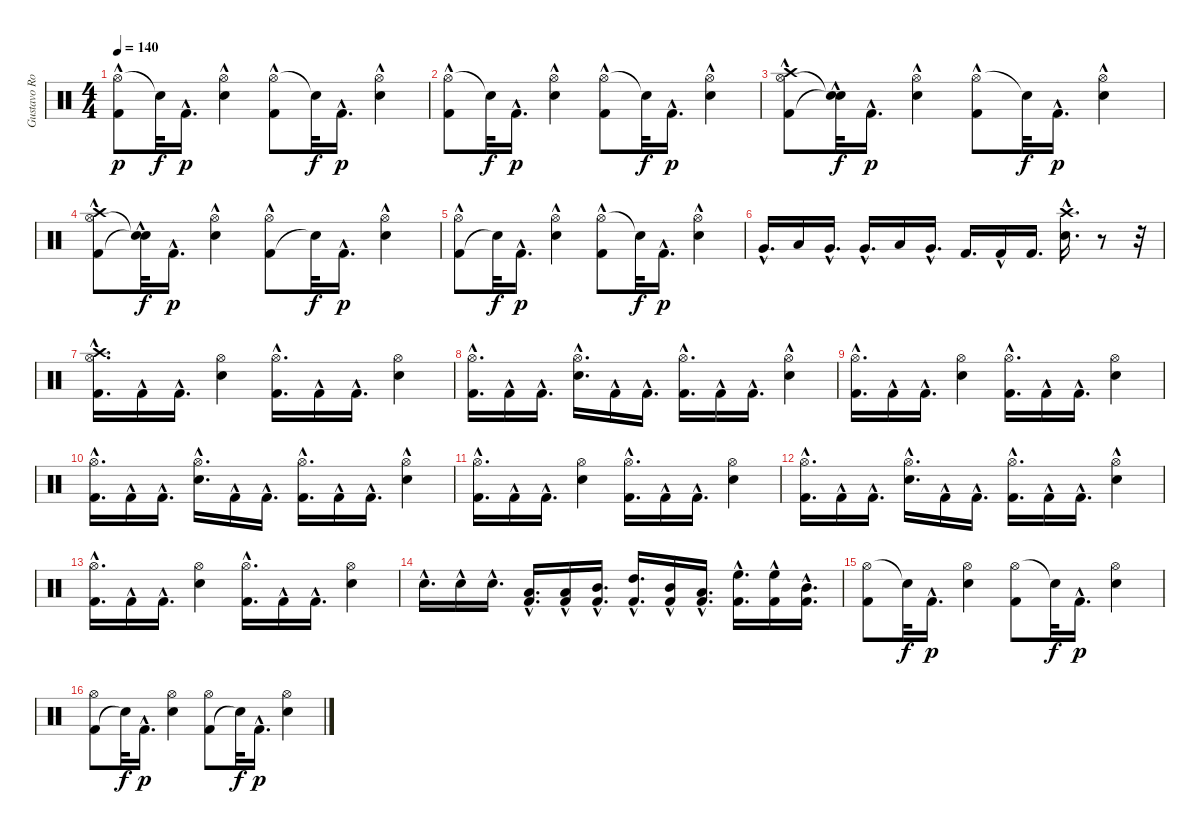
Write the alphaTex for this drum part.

\track ("Gustavo Rowek" "Gustavo Ro") {instrument percussion}
\staff {score}
\articulation defaults
\ts (4 4)
\tempo 140
\clef neutral
\ks c
("Hi-Hat (open)" "Kick (hit) 2"{hac}).8{dy p} "Snare (hit)"{t}.32{dy f} "Kick (hit) 2"{hac}.16{d dy p} ("Snare (hit) 2"{hac} "Hi-Hat (open)").4 ("Hi-Hat (open)" "Kick (hit) 2"{hac}).8 "Snare (hit)"{t}.32{dy f} "Kick (hit) 2"{hac}.16{d dy p} ("Snare (hit) 2"{hac} "Hi-Hat (open)").4 |
("Hi-Hat (open)" "Kick (hit) 2"{hac}).8 "Snare (hit)"{t}.32{dy f} "Kick (hit) 2"{hac}.16{d dy p} ("Snare (hit) 2"{hac} "Hi-Hat (open)").4 ("Hi-Hat (open)" "Kick (hit) 2"{hac}).8 "Snare (hit)"{t}.32{dy f} "Kick (hit) 2"{hac}.16{d dy p} ("Snare (hit) 2"{hac} "Hi-Hat (open)").4 |
("Hi-Hat (open)" "Kick (hit) 2"{hac} "Crash high (hit)").8 ("Snare (hit)"{t} "Snare (hit)"{hac t}).32{dy f} "Kick (hit) 2"{hac}.16{d dy p} ("Hi-Hat (open)" "Snare (hit) 2"{hac}).4 ("Hi-Hat (open)" "Kick (hit) 2"{hac}).8 "Snare (hit)"{t}.32{dy f} "Kick (hit) 2"{hac}.16{d dy p} ("Hi-Hat (open)" "Snare (hit) 2"{hac}).4 |
("Kick (hit) 2"{hac} "Hi-Hat (open)" "Crash high (hit)").8 ("Snare (hit)"{t} "Snare (hit)"{hac t}).32{dy f} "Kick (hit) 2"{hac}.16{d dy p} ("Hi-Hat (open)" "Snare (hit) 2"{hac}).4 ("Kick (hit) 2"{hac} "Hi-Hat (open)").8 "Snare (hit)"{t}.32{dy f} "Kick (hit) 2"{hac}.16{d dy p} ("Snare (hit) 2"{hac} "Hi-Hat (open)").4 |
("Kick (hit) 2"{hac} "Hi-Hat (open)").8 "Snare (hit)"{t}.32{dy f} "Kick (hit) 2"{hac}.16{d dy p} ("Snare (hit) 2"{hac} "Hi-Hat (open)").4 ("Hi-Hat (open)" "Kick (hit) 2"{hac}).8 "Snare (hit)"{t}.32{dy f} "Kick (hit) 2"{hac}.16{d dy p} ("Hi-Hat (open)" "Snare (hit) 2"{hac}).4 |
"Very Low Tom (hit)"{hac}.16{d} "Low Tom (hit)".16 "Very Low Tom (hit)"{hac}.16{d} "Very Low Tom (hit)"{hac}.16{d} "Low Tom (hit)".16 "Very Low Tom (hit)"{hac}.16{d} "Kick (hit) 2".16{d} "Kick (hit) 2"{hac}.16 "Kick (hit) 2".16{d} ("Crash high (hit)"{hac} "Snare (hit) 2"{hac}).16{d} r.8 r.32 |
("Hi-Hat (open)" "Crash high (hit)" "Kick (hit) 2"{hac}).16{d} "Kick (hit) 2"{hac}.16 "Kick (hit) 2"{hac}.16{d} ("Hi-Hat (open)" "Snare (hit) 2").4 ("Hi-Hat (open)" "Kick (hit) 2"{hac}).16{d} "Kick (hit) 2"{hac}.16 "Kick (hit) 2"{hac}.16{d} ("Snare (hit) 2" "Hi-Hat (open)").4 |
("Hi-Hat (open)" "Kick (hit) 2"{hac}).16{d} "Kick (hit) 2"{hac}.16 "Kick (hit) 2"{hac}.16{d} ("Snare (hit) 2"{hac} "Hi-Hat (open)").16{d} "Kick (hit) 2"{hac}.16 "Kick (hit) 2"{hac}.16{d} ("Kick (hit) 2"{hac} "Hi-Hat (open)").16{d} "Kick (hit) 2"{hac}.16 "Kick (hit) 2"{hac}.16{d} ("Electric Snare (hit)"{hac} "Hi-Hat (open)").4 |
("Kick (hit) 2"{hac} "Hi-Hat (open)").16{d} "Kick (hit) 2"{hac}.16 "Kick (hit) 2"{hac}.16{d} ("Snare (hit) 2" "Hi-Hat (open)").4 ("Hi-Hat (open)" "Kick (hit) 2"{hac}).16{d} "Kick (hit) 2"{hac}.16 "Kick (hit) 2"{hac}.16{d} ("Hi-Hat (open)" "Snare (hit) 2").4 |
("Hi-Hat (open)" "Kick (hit) 2"{hac}).16{d} "Kick (hit) 2"{hac}.16 "Kick (hit) 2"{hac}.16{d} ("Hi-Hat (open)" "Snare (hit) 2"{hac}).16{d} "Kick (hit) 2"{hac}.16 "Kick (hit) 2"{hac}.16{d} ("Hi-Hat (open)" "Kick (hit) 2"{hac}).16{d} "Kick (hit) 2"{hac}.16 "Kick (hit) 2"{hac}.16{d} ("Hi-Hat (open)" "Electric Snare (hit)"{hac}).4 |
("Hi-Hat (open)" "Kick (hit) 2"{hac}).16{d} "Kick (hit) 2"{hac}.16 "Kick (hit) 2"{hac}.16{d} ("Snare (hit) 2" "Hi-Hat (open)").4 ("Hi-Hat (open)" "Kick (hit) 2"{hac}).16{d} "Kick (hit) 2"{hac}.16 "Kick (hit) 2"{hac}.16{d} ("Snare (hit) 2" "Hi-Hat (open)").4 |
("Hi-Hat (open)" "Kick (hit) 2"{hac}).16{d} "Kick (hit) 2"{hac}.16 "Kick (hit) 2"{hac}.16{d} ("Snare (hit) 2"{hac} "Hi-Hat (open)").16{d} "Kick (hit) 2"{hac}.16 "Kick (hit) 2"{hac}.16{d} ("Kick (hit) 2"{hac} "Hi-Hat (open)").16{d} "Kick (hit) 2"{hac}.16 "Kick (hit) 2"{hac}.16{d} ("Electric Snare (hit)"{hac} "Hi-Hat (open)").4 |
("Kick (hit) 2"{hac} "Hi-Hat (open)").16{d} "Kick (hit) 2"{hac}.16 "Kick (hit) 2"{hac}.16{d} ("Hi-Hat (open)" "Snare (hit) 2").4 ("Hi-Hat (open)" "Kick (hit) 2"{hac}).16{d} "Kick (hit) 2"{hac}.16 "Kick (hit) 2"{hac}.16{d} ("Snare (hit) 2" "Hi-Hat (open)").4 |
"Snare (hit) 2"{hac}.16{d} "Snare (hit) 2"{hac}.16 "Snare (hit) 2"{hac}.16{d} ("Kick (hit) 2"{hac} "Low Tom (hit)"{hac}).16{d} ("Low Tom (hit)"{hac} "Kick (hit) 2"{hac}).16 ("Kick (hit) 2"{hac} "Mid Tom (hit)"{hac}).16{d} ("Kick (hit) 2"{hac} "High Tom (hit)"{hac}).16{d} ("Mid Tom (hit)"{hac} "Kick (hit) 2"{hac}).16 ("Kick (hit) 2"{hac} "Low Tom (hit)"{hac}).16{d} ("High Floor Tom (hit)"{hac} "Kick (hit) 2"{hac}).16{d} ("Kick (hit) 2"{hac} "High Floor Tom (hit)"{hac}).16 ("Kick (hit) 2"{hac} "Mid Tom (hit)"{hac}).16{d} |
("Hi-Hat (open)" "Kick (hit) 2").8 "Snare (hit)"{t}.32{dy f} "Kick (hit) 2"{hac}.16{d dy p} ("Hi-Hat (open)" "Snare (hit) 2").4 ("Hi-Hat (open)" "Kick (hit) 2").8 "Snare (hit)"{t}.32{dy f} "Kick (hit) 2"{hac}.16{d dy p} ("Hi-Hat (open)" "Snare (hit) 2").4 |
("Kick (hit) 2" "Hi-Hat (open)").8 "Snare (hit)"{t}.32{dy f} "Kick (hit) 2"{hac}.16{d dy p} ("Snare (hit) 2" "Hi-Hat (open)").4 ("Kick (hit) 2" "Hi-Hat (open)").8 "Snare (hit)"{t}.32{dy f} "Kick (hit) 2"{hac}.16{d dy p} ("Snare (hit) 2" "Hi-Hat (open)").4
